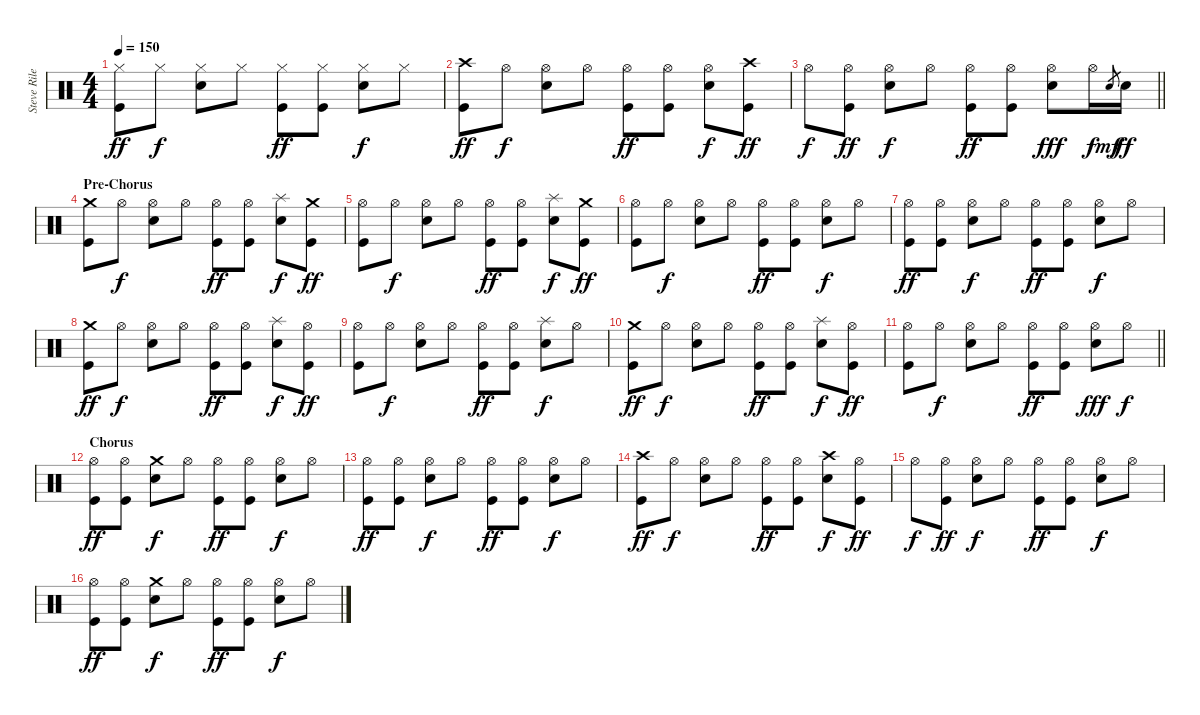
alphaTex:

\track ("Steve Riley" "Steve Rile") {instrument percussion}
\staff {score}
\articulation defaults
\ts (4 4)
\tempo 150
\clef neutral
\ks c
("Hi-Hat (closed)" "Kick (hit)").8{dy ff} "Hi-Hat (closed)".8{dy f} ("Hi-Hat (closed)" "Snare (hit) 2").8 "Hi-Hat (closed)".8 ("Hi-Hat (closed)" "Kick (hit)").8{dy ff} ("Hi-Hat (closed)" "Kick (hit)").8 ("Hi-Hat (closed)" "Snare (hit) 2").8{dy f} "Hi-Hat (closed)".8 |
("Crash high (hit)" "Kick (hit)").8{dy ff} "Hi-Hat (open)".8{dy f} ("Hi-Hat (open)" "Snare (hit) 2").8 "Hi-Hat (open)".8 ("Hi-Hat (open)" "Kick (hit)").8{dy ff} ("Hi-Hat (open)" "Kick (hit)").8 ("Hi-Hat (open)" "Snare (hit) 2").8{dy f} ("Crash high (hit)" "Kick (hit)").8{dy ff} |
\barLineRight lightlight "Hi-Hat (open)".8{dy f}
("Hi-Hat (open)" "Kick (hit)").8{dy ff} ("Hi-Hat (open)" "Snare (hit) 2").8{dy f} "Hi-Hat (open)".8 ("Hi-Hat (open)" "Kick (hit)").8{dy ff} ("Hi-Hat (open)" "Kick (hit)").8 ("Hi-Hat (open)" "Snare (hit) 2").8{dy fff} "Hi-Hat (open)".16{dy f} "Snare (hit) 2".8{gr dy mf} "Snare (hit) 2".16{dy ff} |
\section ("" "Pre-Chorus")
("Crash medium (hit)" "Kick (hit)").8 "Hi-Hat (open)".8{dy f} ("Hi-Hat (open)" "Snare (hit) 2").8 "Hi-Hat (open)".8 ("Hi-Hat (open)" "Kick (hit)").8{dy ff} ("Hi-Hat (open)" "Kick (hit)").8 ("Splash (hit)" "Snare (hit) 2").8{dy f} ("Crash medium (hit)" "Kick (hit)").8{dy ff} |
("Hi-Hat (open)" "Kick (hit)").8 "Hi-Hat (open)".8{dy f} ("Hi-Hat (open)" "Snare (hit) 2").8 "Hi-Hat (open)".8 ("Hi-Hat (open)" "Kick (hit)").8{dy ff} ("Hi-Hat (open)" "Kick (hit)").8 ("Splash (hit)" "Snare (hit) 2").8{dy f} ("Crash medium (hit)" "Kick (hit)").8{dy ff} |
("Hi-Hat (open)" "Kick (hit)").8 "Hi-Hat (open)".8{dy f} ("Hi-Hat (open)" "Snare (hit) 2").8 "Hi-Hat (open)".8 ("Hi-Hat (open)" "Kick (hit)").8{dy ff} ("Hi-Hat (open)" "Kick (hit)").8 ("Hi-Hat (open)" "Snare (hit) 2").8{dy f} "Hi-Hat (open)".8 |
("Hi-Hat (open)" "Kick (hit)").8{dy ff} ("Hi-Hat (open)" "Kick (hit)").8 ("Hi-Hat (open)" "Snare (hit) 2").8{dy f} "Hi-Hat (open)".8 ("Hi-Hat (open)" "Kick (hit)").8{dy ff} ("Hi-Hat (open)" "Kick (hit)").8 ("Hi-Hat (open)" "Snare (hit) 2").8{dy f} "Hi-Hat (open)".8 |
("Crash medium (hit)" "Kick (hit)").8{dy ff} "Hi-Hat (open)".8{dy f} ("Hi-Hat (open)" "Snare (hit) 2").8 "Hi-Hat (open)".8 ("Hi-Hat (open)" "Kick (hit)").8{dy ff} ("Hi-Hat (open)" "Kick (hit)").8 ("Splash (hit)" "Snare (hit) 2").8{dy f} ("Hi-Hat (open)" "Kick (hit)").8{dy ff} |
("Hi-Hat (open)" "Kick (hit)").8 "Hi-Hat (open)".8{dy f} ("Hi-Hat (open)" "Snare (hit) 2").8 "Hi-Hat (open)".8 ("Hi-Hat (open)" "Kick (hit)").8{dy ff} ("Hi-Hat (open)" "Kick (hit)").8 ("Splash (hit)" "Snare (hit) 2").8{dy f} "Hi-Hat (open)".8 |
("Crash medium (hit)" "Kick (hit)").8{dy ff} "Hi-Hat (open)".8{dy f} ("Hi-Hat (open)" "Snare (hit) 2").8 "Hi-Hat (open)".8 ("Hi-Hat (open)" "Kick (hit)").8{dy ff} ("Hi-Hat (open)" "Kick (hit)").8 ("Splash (hit)" "Snare (hit) 2").8{dy f} ("Hi-Hat (open)" "Kick (hit)").8{dy ff} |
\barLineRight lightlight
("Hi-Hat (open)" "Kick (hit)").8 "Hi-Hat (open)".8{dy f} ("Hi-Hat (open)" "Snare (hit) 2").8 "Hi-Hat (open)".8 ("Hi-Hat (open)" "Kick (hit)").8{dy ff} ("Hi-Hat (open)" "Kick (hit)").8 ("Hi-Hat (open)" "Snare (hit) 2").8{dy fff} "Hi-Hat (open)".8{dy f} |
\section ("" "Chorus")
("Hi-Hat (open)" "Kick (hit)").8{dy ff} ("Hi-Hat (open)" "Kick (hit)").8 ("Crash medium (hit)" "Snare (hit) 2").8{dy f} "Hi-Hat (open)".8 ("Hi-Hat (open)" "Kick (hit)").8{dy ff} ("Hi-Hat (open)" "Kick (hit)").8 ("Hi-Hat (open)" "Snare (hit) 2").8{dy f} "Hi-Hat (open)".8 |
("Hi-Hat (open)" "Kick (hit)").8{dy ff} ("Hi-Hat (open)" "Kick (hit)").8 ("Hi-Hat (open)" "Snare (hit) 2").8{dy f} "Hi-Hat (open)".8 ("Hi-Hat (open)" "Kick (hit)").8{dy ff} ("Hi-Hat (open)" "Kick (hit)").8 ("Hi-Hat (open)" "Snare (hit) 2").8{dy f} "Hi-Hat (open)".8 |
("Crash high (hit)" "Kick (hit)").8{dy ff} "Hi-Hat (open)".8{dy f} ("Hi-Hat (open)" "Snare (hit) 2").8 "Hi-Hat (open)".8 ("Hi-Hat (open)" "Kick (hit)").8{dy ff} ("Hi-Hat (open)" "Kick (hit)").8 ("Crash high (hit)" "Snare (hit) 2").8{dy f} ("Hi-Hat (open)" "Kick (hit)").8{dy ff} |
"Hi-Hat (open)".8{dy f} ("Hi-Hat (open)" "Kick (hit)").8{dy ff} ("Hi-Hat (open)" "Snare (hit) 2").8{dy f} "Hi-Hat (open)".8 ("Hi-Hat (open)" "Kick (hit)").8{dy ff} ("Hi-Hat (open)" "Kick (hit)").8 ("Hi-Hat (open)" "Snare (hit) 2").8{dy f} "Hi-Hat (open)".8 |
("Hi-Hat (open)" "Kick (hit)").8{dy ff} ("Hi-Hat (open)" "Kick (hit)").8 ("Crash medium (hit)" "Snare (hit) 2").8{dy f} "Hi-Hat (open)".8 ("Hi-Hat (open)" "Kick (hit)").8{dy ff} ("Hi-Hat (open)" "Kick (hit)").8 ("Hi-Hat (open)" "Snare (hit) 2").8{dy f} "Hi-Hat (open)".8
